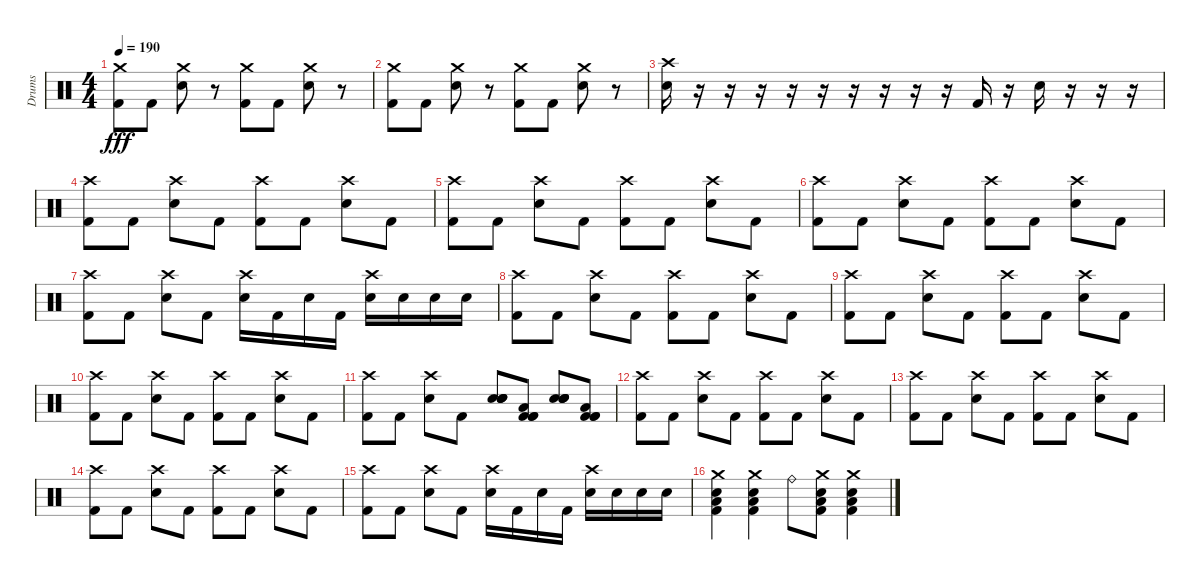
\track ("Drums" "Drums") {instrument percussion}
\staff {score}
\articulation defaults
\ts (4 4)
\tempo 190
\clef neutral
\ks c
("Crash medium (hit)" "Kick (hit) 2").8{dy fff} "Kick (hit) 2".8 ("Crash medium (hit)" "Snare (hit) 2").8 r.8 ("Crash medium (hit)" "Kick (hit) 2").8 "Kick (hit) 2".8 ("Crash medium (hit)" "Snare (hit) 2").8 r.8 |
("Crash medium (hit)" "Kick (hit) 2").8 "Kick (hit) 2".8 ("Crash medium (hit)" "Snare (hit) 2").8 r.8 ("Crash medium (hit)" "Kick (hit) 2").8 "Kick (hit) 2".8 ("Crash medium (hit)" "Snare (hit) 2").8 r.8 |
("Crash high (hit)" "Snare (hit) 2").16 r.16 r.16 r.16 r.16 r.16 r.16 r.16 r.16 r.16 "Kick (hit) 2".16 r.16 "Snare (hit) 2".16 r.16 r.16 r.16 |
("Crash high (hit)" "Kick (hit) 2").8 "Kick (hit) 2".8 ("Crash high (hit)" "Snare (hit) 2").8 "Kick (hit) 2".8 ("Crash high (hit)" "Kick (hit) 2").8 "Kick (hit) 2".8 ("Crash high (hit)" "Snare (hit) 2").8 "Kick (hit) 2".8 |
("Crash high (hit)" "Kick (hit) 2").8 "Kick (hit) 2".8 ("Crash high (hit)" "Snare (hit) 2").8 "Kick (hit) 2".8 ("Crash high (hit)" "Kick (hit) 2").8 "Kick (hit) 2".8 ("Crash high (hit)" "Snare (hit) 2").8 "Kick (hit) 2".8 |
("Crash high (hit)" "Kick (hit) 2").8 "Kick (hit) 2".8 ("Crash high (hit)" "Snare (hit) 2").8 "Kick (hit) 2".8 ("Crash high (hit)" "Kick (hit) 2").8 "Kick (hit) 2".8 ("Crash high (hit)" "Snare (hit) 2").8 "Kick (hit) 2".8 |
("Crash high (hit)" "Kick (hit) 2").8 "Kick (hit) 2".8 ("Crash high (hit)" "Snare (hit) 2").8 "Kick (hit) 2".8 ("Crash high (hit)" "Electric Snare (hit)").16 "Kick (hit) 2".16 "Electric Snare (hit)".16 "Kick (hit) 2".16 ("Crash high (hit)" "Electric Snare (hit)").16 "Electric Snare (hit)".16 "Electric Snare (hit)".16 "Electric Snare (hit)".16 |
("Crash high (hit)" "Kick (hit) 2").8 "Kick (hit) 2".8 ("Crash high (hit)" "Snare (hit) 2").8 "Kick (hit) 2".8 ("Crash high (hit)" "Kick (hit) 2").8 "Kick (hit) 2".8 ("Crash high (hit)" "Snare (hit) 2").8 "Kick (hit) 2".8 |
("Crash high (hit)" "Kick (hit) 2").8 "Kick (hit) 2".8 ("Crash high (hit)" "Snare (hit) 2").8 "Kick (hit) 2".8 ("Crash high (hit)" "Kick (hit) 2").8 "Kick (hit) 2".8 ("Crash high (hit)" "Snare (hit) 2").8 "Kick (hit) 2".8 |
("Crash high (hit)" "Kick (hit) 2").8 "Kick (hit) 2".8 ("Crash high (hit)" "Snare (hit) 2").8 "Kick (hit) 2".8 ("Crash high (hit)" "Kick (hit) 2").8 "Kick (hit) 2".8 ("Crash high (hit)" "Snare (hit) 2").8 "Kick (hit) 2".8 |
("Crash high (hit)" "Kick (hit) 2").8 "Kick (hit) 2".8 ("Crash high (hit)" "Snare (hit) 2").8 "Kick (hit) 2".8 ("Electric Snare (hit)" "Snare (hit) 2" "Snare (hit) 2" "Snare (hit) 2").8 ("Low Floor Tom (hit)" "Kick (hit) 2" "Kick (hit) 2" "Kick (hit) 2").8 ("Electric Snare (hit)" "Snare (hit) 2" "Snare (hit) 2" "Snare (hit) 2").8 ("Low Floor Tom (hit)" "Kick (hit) 2" "Kick (hit) 2" "Kick (hit) 2").8 |
("Crash high (hit)" "Kick (hit) 2").8 "Kick (hit) 2".8 ("Crash high (hit)" "Snare (hit) 2").8 "Kick (hit) 2".8 ("Crash high (hit)" "Kick (hit) 2").8 "Kick (hit) 2".8 ("Crash high (hit)" "Snare (hit) 2").8 "Kick (hit) 2".8 |
("Crash high (hit)" "Kick (hit) 2").8 "Kick (hit) 2".8 ("Crash high (hit)" "Snare (hit) 2").8 "Kick (hit) 2".8 ("Crash high (hit)" "Kick (hit) 2").8 "Kick (hit) 2".8 ("Crash high (hit)" "Snare (hit) 2").8 "Kick (hit) 2".8 |
("Crash high (hit)" "Kick (hit) 2").8 "Kick (hit) 2".8 ("Crash high (hit)" "Snare (hit) 2").8 "Kick (hit) 2".8 ("Crash high (hit)" "Kick (hit) 2").8 "Kick (hit) 2".8 ("Crash high (hit)" "Snare (hit) 2").8 "Kick (hit) 2".8 |
("Crash high (hit)" "Kick (hit) 2").8 "Kick (hit) 2".8 ("Crash high (hit)" "Snare (hit) 2").8 "Kick (hit) 2".8 ("Crash high (hit)" "Electric Snare (hit)").16 "Kick (hit) 2".16 "Electric Snare (hit)".16 "Kick (hit) 2".16 ("Crash high (hit)" "Electric Snare (hit)").16 "Electric Snare (hit)".16 "Electric Snare (hit)".16 "Electric Snare (hit)".16 |
("Crash medium (hit)" "Low Floor Tom (hit)" "Snare (hit) 2" "Kick (hit) 2").4 ("Crash medium (hit)" "Low Floor Tom (hit)" "Snare (hit) 2" "Kick (hit) 2").4 "Ride (bell)".8 ("Crash medium (hit)" "Low Floor Tom (hit)" "Snare (hit) 2" "Kick (hit) 2").8 ("Crash medium (hit)" "Low Floor Tom (hit)" "Snare (hit) 2" "Kick (hit) 2").4
